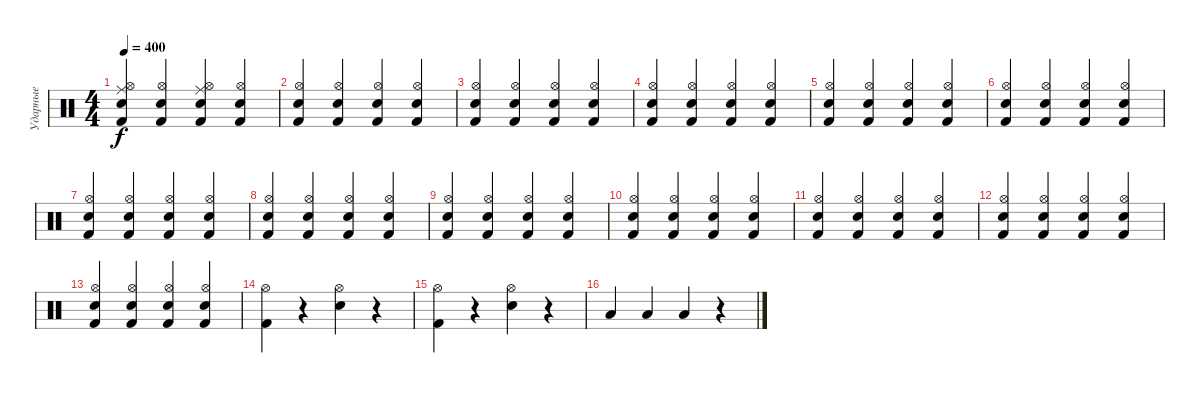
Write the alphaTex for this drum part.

\track ("Ударные" "Ударные") {instrument percussion}
\staff {score}
\articulation defaults
\ts (4 4)
\tempo 400
\clef neutral
\ks c
("Electric Snare (hit)" "Hi-Hat (open)" "Ride (middle)" "Kick (hit) 2").4{dy f} ("Hi-Hat (open)" "Kick (hit) 2" "Electric Snare (hit)").4 ("Electric Snare (hit)" "Kick (hit) 2" "Hi-Hat (open)" "Ride (middle)").4 ("Hi-Hat (open)" "Kick (hit) 2" "Electric Snare (hit)").4 |
("Electric Snare (hit)" "Hi-Hat (open)" "Kick (hit) 2").4 ("Hi-Hat (open)" "Kick (hit) 2" "Electric Snare (hit)").4 ("Electric Snare (hit)" "Kick (hit) 2" "Hi-Hat (open)").4 ("Hi-Hat (open)" "Kick (hit) 2" "Electric Snare (hit)").4 |
("Electric Snare (hit)" "Hi-Hat (open)" "Kick (hit) 2").4 ("Hi-Hat (open)" "Kick (hit) 2" "Electric Snare (hit)").4 ("Electric Snare (hit)" "Kick (hit) 2" "Hi-Hat (open)").4 ("Hi-Hat (open)" "Kick (hit) 2" "Electric Snare (hit)").4 |
("Electric Snare (hit)" "Hi-Hat (open)" "Kick (hit) 2").4 ("Hi-Hat (open)" "Kick (hit) 2" "Electric Snare (hit)").4 ("Electric Snare (hit)" "Kick (hit) 2" "Hi-Hat (open)").4 ("Hi-Hat (open)" "Kick (hit) 2" "Electric Snare (hit)").4 |
("Electric Snare (hit)" "Hi-Hat (open)" "Kick (hit) 2").4 ("Hi-Hat (open)" "Kick (hit) 2" "Electric Snare (hit)").4 ("Electric Snare (hit)" "Kick (hit) 2" "Hi-Hat (open)").4 ("Hi-Hat (open)" "Kick (hit) 2" "Electric Snare (hit)").4 |
("Electric Snare (hit)" "Hi-Hat (open)" "Kick (hit) 2").4 ("Hi-Hat (open)" "Kick (hit) 2" "Electric Snare (hit)").4 ("Electric Snare (hit)" "Kick (hit) 2" "Hi-Hat (open)").4 ("Hi-Hat (open)" "Kick (hit) 2" "Electric Snare (hit)").4 |
("Electric Snare (hit)" "Hi-Hat (open)" "Kick (hit) 2").4 ("Hi-Hat (open)" "Kick (hit) 2" "Electric Snare (hit)").4 ("Electric Snare (hit)" "Kick (hit) 2" "Hi-Hat (open)").4 ("Hi-Hat (open)" "Kick (hit) 2" "Electric Snare (hit)").4 |
("Electric Snare (hit)" "Hi-Hat (open)" "Kick (hit) 2").4 ("Hi-Hat (open)" "Kick (hit) 2" "Electric Snare (hit)").4 ("Electric Snare (hit)" "Kick (hit) 2" "Hi-Hat (open)").4 ("Hi-Hat (open)" "Kick (hit) 2" "Electric Snare (hit)").4 |
("Electric Snare (hit)" "Hi-Hat (open)" "Kick (hit) 2").4 ("Hi-Hat (open)" "Kick (hit) 2" "Electric Snare (hit)").4 ("Electric Snare (hit)" "Kick (hit) 2" "Hi-Hat (open)").4 ("Hi-Hat (open)" "Kick (hit) 2" "Electric Snare (hit)").4 |
("Electric Snare (hit)" "Hi-Hat (open)" "Kick (hit) 2").4 ("Hi-Hat (open)" "Kick (hit) 2" "Electric Snare (hit)").4 ("Electric Snare (hit)" "Kick (hit) 2" "Hi-Hat (open)").4 ("Hi-Hat (open)" "Kick (hit) 2" "Electric Snare (hit)").4 |
("Electric Snare (hit)" "Hi-Hat (open)" "Kick (hit) 2").4 ("Hi-Hat (open)" "Kick (hit) 2" "Electric Snare (hit)").4 ("Electric Snare (hit)" "Kick (hit) 2" "Hi-Hat (open)").4 ("Hi-Hat (open)" "Kick (hit) 2" "Electric Snare (hit)").4 |
("Electric Snare (hit)" "Hi-Hat (open)" "Kick (hit) 2").4 ("Hi-Hat (open)" "Kick (hit) 2" "Electric Snare (hit)").4 ("Electric Snare (hit)" "Kick (hit) 2" "Hi-Hat (open)").4 ("Hi-Hat (open)" "Kick (hit) 2" "Electric Snare (hit)").4 |
("Electric Snare (hit)" "Hi-Hat (open)" "Kick (hit) 2").4 ("Hi-Hat (open)" "Kick (hit) 2" "Electric Snare (hit)").4 ("Electric Snare (hit)" "Kick (hit) 2" "Hi-Hat (open)").4 ("Hi-Hat (open)" "Kick (hit) 2" "Electric Snare (hit)").4 |
("Kick (hit) 2" "Hi-Hat (open)").4 r.4 ("Electric Snare (hit)" "Hi-Hat (open)").4 r.4 |
("Kick (hit) 2" "Hi-Hat (open)").4 r.4 ("Electric Snare (hit)" "Hi-Hat (open)").4 r.4 |
"Low Floor Tom (hit)".4 "Low Floor Tom (hit)".4 "Low Floor Tom (hit)".4 r.4
